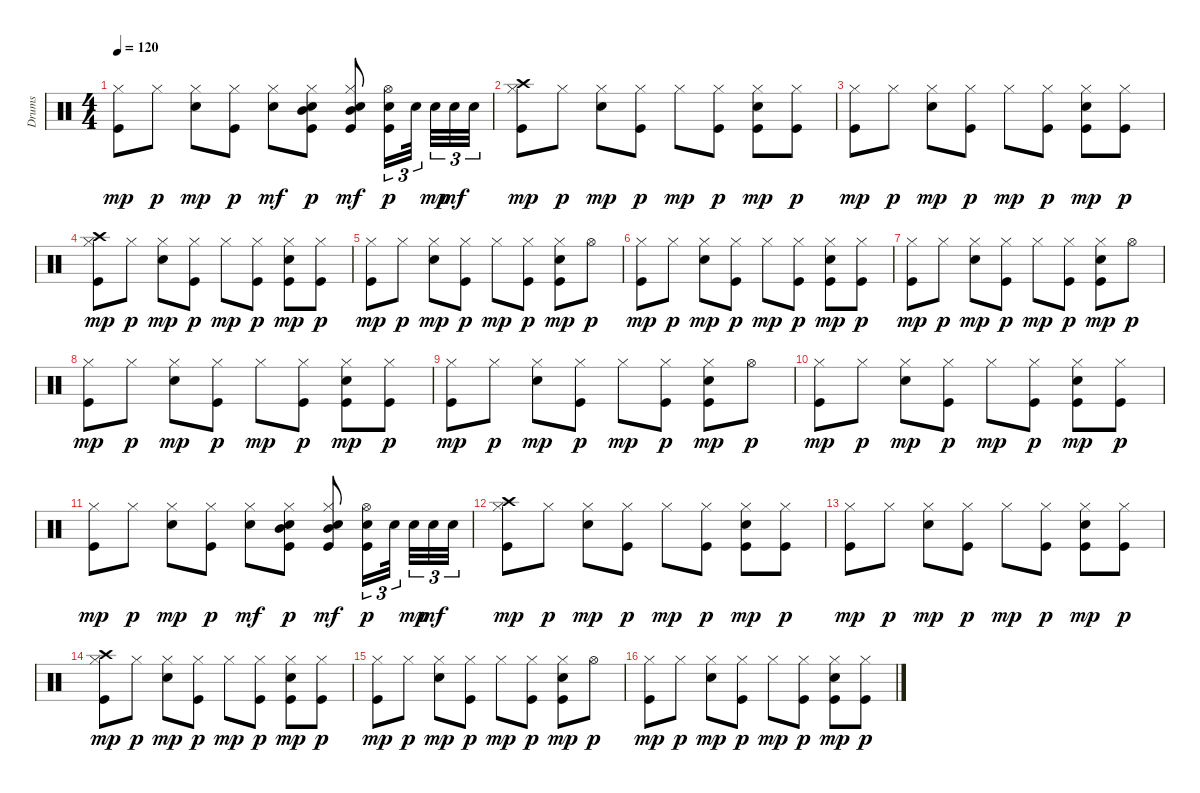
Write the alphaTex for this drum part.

\track ("Drums" "Drums") {instrument percussion}
\staff {score}
\articulation defaults
\ts (4 4)
\tempo 120
\clef neutral
\ks c
("Kick (hit)" "Hi-Hat (closed)").8{dy mp} "Hi-Hat (closed)".8{dy p} ("Electric Snare (hit)" "Hi-Hat (closed)").8{dy mp} ("Kick (hit)" "Hi-Hat (closed)").8{dy p} ("Hi-Hat (closed)" "Electric Snare (hit)").8{dy mf} ("Kick (hit)" "Electric Snare (hit)" "Hi-Hat (closed)" "Mid Tom (hit)").8{dy p} ("Kick (hit)" "Electric Snare (hit)" "Hi-Hat (closed)" "Mid Tom (hit)").8{dy mf} ("Kick (hit)" "Electric Snare (hit)" "Hi-Hat (open)").16{tu (3 2) dy p} "Electric Snare (hit)".32{tu (3 2) beam splitsecondary} "Electric Snare (hit)".32{tu (3 2) dy mp} "Electric Snare (hit)".32{tu (3 2) dy mf} "Electric Snare (hit)".32{tu (3 2)} |
("Kick (hit)" "Hi-Hat (closed)" "Crash high (hit)").8{dy mp} "Hi-Hat (closed)".8{dy p} ("Electric Snare (hit)" "Hi-Hat (closed)").8{dy mp} ("Kick (hit)" "Hi-Hat (closed)").8{dy p} "Hi-Hat (closed)".8{dy mp} ("Kick (hit)" "Hi-Hat (closed)").8{dy p} ("Kick (hit)" "Electric Snare (hit)" "Hi-Hat (closed)").8{dy mp} ("Kick (hit)" "Hi-Hat (closed)").8{dy p} |
("Kick (hit)" "Hi-Hat (closed)").8{dy mp} "Hi-Hat (closed)".8{dy p} ("Electric Snare (hit)" "Hi-Hat (closed)").8{dy mp} ("Kick (hit)" "Hi-Hat (closed)").8{dy p} "Hi-Hat (closed)".8{dy mp} ("Kick (hit)" "Hi-Hat (closed)").8{dy p} ("Kick (hit)" "Electric Snare (hit)" "Hi-Hat (closed)").8{dy mp} ("Kick (hit)" "Hi-Hat (closed)").8{dy p} |
("Kick (hit)" "Hi-Hat (closed)" "Crash high (hit)").8{dy mp} "Hi-Hat (closed)".8{dy p} ("Electric Snare (hit)" "Hi-Hat (closed)").8{dy mp} ("Kick (hit)" "Hi-Hat (closed)").8{dy p} "Hi-Hat (closed)".8{dy mp} ("Kick (hit)" "Hi-Hat (closed)").8{dy p} ("Kick (hit)" "Electric Snare (hit)" "Hi-Hat (closed)").8{dy mp} ("Kick (hit)" "Hi-Hat (closed)").8{dy p} |
("Kick (hit)" "Hi-Hat (closed)").8{dy mp} "Hi-Hat (closed)".8{dy p} ("Electric Snare (hit)" "Hi-Hat (closed)").8{dy mp} ("Kick (hit)" "Hi-Hat (closed)").8{dy p} "Hi-Hat (closed)".8{dy mp} ("Kick (hit)" "Hi-Hat (closed)").8{dy p} ("Kick (hit)" "Electric Snare (hit)" "Hi-Hat (closed)").8{dy mp} "Hi-Hat (open)".8{dy p} |
("Kick (hit)" "Hi-Hat (closed)").8{dy mp} "Hi-Hat (closed)".8{dy p} ("Electric Snare (hit)" "Hi-Hat (closed)").8{dy mp} ("Kick (hit)" "Hi-Hat (closed)").8{dy p} "Hi-Hat (closed)".8{dy mp} ("Kick (hit)" "Hi-Hat (closed)").8{dy p} ("Kick (hit)" "Electric Snare (hit)" "Hi-Hat (closed)").8{dy mp} ("Kick (hit)" "Hi-Hat (closed)").8{dy p} |
("Kick (hit)" "Hi-Hat (closed)").8{dy mp} "Hi-Hat (closed)".8{dy p} ("Electric Snare (hit)" "Hi-Hat (closed)").8{dy mp} ("Kick (hit)" "Hi-Hat (closed)").8{dy p} "Hi-Hat (closed)".8{dy mp} ("Kick (hit)" "Hi-Hat (closed)").8{dy p} ("Kick (hit)" "Electric Snare (hit)" "Hi-Hat (closed)").8{dy mp} "Hi-Hat (open)".8{dy p} |
("Kick (hit)" "Hi-Hat (closed)").8{dy mp} "Hi-Hat (closed)".8{dy p} ("Electric Snare (hit)" "Hi-Hat (closed)").8{dy mp} ("Kick (hit)" "Hi-Hat (closed)").8{dy p} "Hi-Hat (closed)".8{dy mp} ("Kick (hit)" "Hi-Hat (closed)").8{dy p} ("Kick (hit)" "Electric Snare (hit)" "Hi-Hat (closed)").8{dy mp} ("Kick (hit)" "Hi-Hat (closed)").8{dy p} |
("Kick (hit)" "Hi-Hat (closed)").8{dy mp} "Hi-Hat (closed)".8{dy p} ("Electric Snare (hit)" "Hi-Hat (closed)").8{dy mp} ("Kick (hit)" "Hi-Hat (closed)").8{dy p} "Hi-Hat (closed)".8{dy mp} ("Kick (hit)" "Hi-Hat (closed)").8{dy p} ("Kick (hit)" "Electric Snare (hit)" "Hi-Hat (closed)").8{dy mp} "Hi-Hat (open)".8{dy p} |
("Kick (hit)" "Hi-Hat (closed)").8{dy mp} "Hi-Hat (closed)".8{dy p} ("Electric Snare (hit)" "Hi-Hat (closed)").8{dy mp} ("Kick (hit)" "Hi-Hat (closed)").8{dy p} "Hi-Hat (closed)".8{dy mp} ("Kick (hit)" "Hi-Hat (closed)").8{dy p} ("Kick (hit)" "Electric Snare (hit)" "Hi-Hat (closed)").8{dy mp} ("Kick (hit)" "Hi-Hat (closed)").8{dy p} |
("Kick (hit)" "Hi-Hat (closed)").8{dy mp} "Hi-Hat (closed)".8{dy p} ("Electric Snare (hit)" "Hi-Hat (closed)").8{dy mp} ("Kick (hit)" "Hi-Hat (closed)").8{dy p} ("Hi-Hat (closed)" "Electric Snare (hit)").8{dy mf} ("Kick (hit)" "Electric Snare (hit)" "Hi-Hat (closed)" "Mid Tom (hit)").8{dy p} ("Kick (hit)" "Electric Snare (hit)" "Hi-Hat (closed)" "Mid Tom (hit)").8{dy mf} ("Kick (hit)" "Electric Snare (hit)" "Hi-Hat (open)").16{tu (3 2) dy p} "Electric Snare (hit)".32{tu (3 2) beam splitsecondary} "Electric Snare (hit)".32{tu (3 2) dy mp} "Electric Snare (hit)".32{tu (3 2) dy mf} "Electric Snare (hit)".32{tu (3 2)} |
("Kick (hit)" "Hi-Hat (closed)" "Crash high (hit)").8{dy mp} "Hi-Hat (closed)".8{dy p} ("Electric Snare (hit)" "Hi-Hat (closed)").8{dy mp} ("Kick (hit)" "Hi-Hat (closed)").8{dy p} "Hi-Hat (closed)".8{dy mp} ("Kick (hit)" "Hi-Hat (closed)").8{dy p} ("Kick (hit)" "Electric Snare (hit)" "Hi-Hat (closed)").8{dy mp} ("Kick (hit)" "Hi-Hat (closed)").8{dy p} |
("Kick (hit)" "Hi-Hat (closed)").8{dy mp} "Hi-Hat (closed)".8{dy p} ("Electric Snare (hit)" "Hi-Hat (closed)").8{dy mp} ("Kick (hit)" "Hi-Hat (closed)").8{dy p} "Hi-Hat (closed)".8{dy mp} ("Kick (hit)" "Hi-Hat (closed)").8{dy p} ("Kick (hit)" "Electric Snare (hit)" "Hi-Hat (closed)").8{dy mp} ("Kick (hit)" "Hi-Hat (closed)").8{dy p} |
("Kick (hit)" "Hi-Hat (closed)" "Crash high (hit)").8{dy mp} "Hi-Hat (closed)".8{dy p} ("Electric Snare (hit)" "Hi-Hat (closed)").8{dy mp} ("Kick (hit)" "Hi-Hat (closed)").8{dy p} "Hi-Hat (closed)".8{dy mp} ("Kick (hit)" "Hi-Hat (closed)").8{dy p} ("Kick (hit)" "Electric Snare (hit)" "Hi-Hat (closed)").8{dy mp} ("Kick (hit)" "Hi-Hat (closed)").8{dy p} |
("Kick (hit)" "Hi-Hat (closed)").8{dy mp} "Hi-Hat (closed)".8{dy p} ("Electric Snare (hit)" "Hi-Hat (closed)").8{dy mp} ("Kick (hit)" "Hi-Hat (closed)").8{dy p} "Hi-Hat (closed)".8{dy mp} ("Kick (hit)" "Hi-Hat (closed)").8{dy p} ("Kick (hit)" "Electric Snare (hit)" "Hi-Hat (closed)").8{dy mp} "Hi-Hat (open)".8{dy p} |
("Kick (hit)" "Hi-Hat (closed)").8{dy mp} "Hi-Hat (closed)".8{dy p} ("Electric Snare (hit)" "Hi-Hat (closed)").8{dy mp} ("Kick (hit)" "Hi-Hat (closed)").8{dy p} "Hi-Hat (closed)".8{dy mp} ("Kick (hit)" "Hi-Hat (closed)").8{dy p} ("Kick (hit)" "Electric Snare (hit)" "Hi-Hat (closed)").8{dy mp} ("Kick (hit)" "Hi-Hat (closed)").8{dy p}
